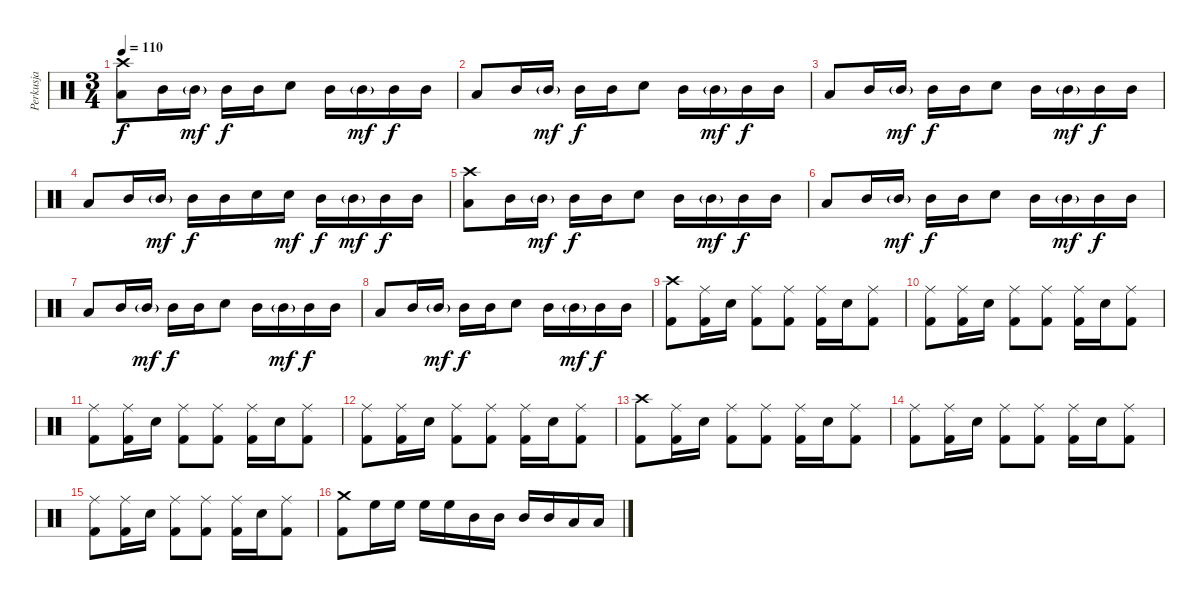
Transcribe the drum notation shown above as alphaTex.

\track ("Perkusja" "Perkusja") {instrument percussion}
\staff {score}
\articulation defaults
\ts (3 4)
\tempo 110
\clef neutral
\ks c
("Crash high (hit)" "Low Floor Tom (hit)").8{dy f} "Mid Tom (hit)".16 "Mid Tom (hit)"{g}.16{dy mf} "Mid Tom (hit)".16{dy f} "Mid Tom (hit)".16 "Snare (hit) 2".8 "Mid Tom (hit)".16 "Mid Tom (hit)"{g}.16{dy mf} "Mid Tom (hit)".16{dy f} "Mid Tom (hit)".16 |
"Low Floor Tom (hit)".8 "Mid Tom (hit)".16 "Mid Tom (hit)"{g}.16{dy mf} "Mid Tom (hit)".16{dy f} "Mid Tom (hit)".16 "Snare (hit) 2".8 "Mid Tom (hit)".16 "Mid Tom (hit)"{g}.16{dy mf} "Mid Tom (hit)".16{dy f} "Mid Tom (hit)".16 |
"Low Floor Tom (hit)".8 "Mid Tom (hit)".16 "Mid Tom (hit)"{g}.16{dy mf} "Mid Tom (hit)".16{dy f} "Mid Tom (hit)".16 "Snare (hit) 2".8 "Mid Tom (hit)".16 "Mid Tom (hit)"{g}.16{dy mf} "Mid Tom (hit)".16{dy f} "Mid Tom (hit)".16 |
"Low Floor Tom (hit)".8 "Mid Tom (hit)".16 "Mid Tom (hit)"{g}.16{dy mf} "Mid Tom (hit)".16{dy f} "Mid Tom (hit)".16 "Snare (hit) 2".16 "Snare (hit) 2".16{dy mf} "Mid Tom (hit)".16{dy f} "Mid Tom (hit)"{g}.16{dy mf} "Mid Tom (hit)".16{dy f} "Mid Tom (hit)".16 |
("Crash high (hit)" "Low Floor Tom (hit)").8 "Mid Tom (hit)".16 "Mid Tom (hit)"{g}.16{dy mf} "Mid Tom (hit)".16{dy f} "Mid Tom (hit)".16 "Snare (hit) 2".8 "Mid Tom (hit)".16 "Mid Tom (hit)"{g}.16{dy mf} "Mid Tom (hit)".16{dy f} "Mid Tom (hit)".16 |
"Low Floor Tom (hit)".8 "Mid Tom (hit)".16 "Mid Tom (hit)"{g}.16{dy mf} "Mid Tom (hit)".16{dy f} "Mid Tom (hit)".16 "Snare (hit) 2".8 "Mid Tom (hit)".16 "Mid Tom (hit)"{g}.16{dy mf} "Mid Tom (hit)".16{dy f} "Mid Tom (hit)".16 |
"Low Floor Tom (hit)".8 "Mid Tom (hit)".16 "Mid Tom (hit)"{g}.16{dy mf} "Mid Tom (hit)".16{dy f} "Mid Tom (hit)".16 "Snare (hit) 2".8 "Mid Tom (hit)".16 "Mid Tom (hit)"{g}.16{dy mf} "Mid Tom (hit)".16{dy f} "Mid Tom (hit)".16 |
"Low Floor Tom (hit)".8 "Mid Tom (hit)".16 "Mid Tom (hit)"{g}.16{dy mf} "Mid Tom (hit)".16{dy f} "Mid Tom (hit)".16 "Snare (hit) 2".8 "Mid Tom (hit)".16 "Mid Tom (hit)"{g}.16{dy mf} "Mid Tom (hit)".16{dy f} "Mid Tom (hit)".16 |
("Crash high (hit)" "Kick (hit) 2").8 ("Ride (middle)" "Kick (hit) 2").16 "Snare (hit) 2".16 ("Ride (middle)" "Kick (hit) 2").8 ("Ride (middle)" "Kick (hit) 2").8 ("Ride (middle)" "Kick (hit) 2").16 "Snare (hit) 2".16 ("Ride (middle)" "Kick (hit) 2").8 |
("Ride (middle)" "Kick (hit) 2").8 ("Ride (middle)" "Kick (hit) 2").16 "Snare (hit) 2".16 ("Ride (middle)" "Kick (hit) 2").8 ("Ride (middle)" "Kick (hit) 2").8 ("Ride (middle)" "Kick (hit) 2").16 "Snare (hit) 2".16 ("Ride (middle)" "Kick (hit) 2").8 |
("Ride (middle)" "Kick (hit) 2").8 ("Ride (middle)" "Kick (hit) 2").16 "Snare (hit) 2".16 ("Ride (middle)" "Kick (hit) 2").8 ("Ride (middle)" "Kick (hit) 2").8 ("Ride (middle)" "Kick (hit) 2").16 "Snare (hit) 2".16 ("Ride (middle)" "Kick (hit) 2").8 |
("Ride (middle)" "Kick (hit) 2").8 ("Ride (middle)" "Kick (hit) 2").16 "Snare (hit) 2".16 ("Ride (middle)" "Kick (hit) 2").8 ("Ride (middle)" "Kick (hit) 2").8 ("Ride (middle)" "Kick (hit) 2").16 "Snare (hit) 2".16 ("Ride (middle)" "Kick (hit) 2").8 |
("Crash high (hit)" "Kick (hit) 2").8 ("Ride (middle)" "Kick (hit) 2").16 "Snare (hit) 2".16 ("Ride (middle)" "Kick (hit) 2").8 ("Ride (middle)" "Kick (hit) 2").8 ("Ride (middle)" "Kick (hit) 2").16 "Snare (hit) 2".16 ("Ride (middle)" "Kick (hit) 2").8 |
("Ride (middle)" "Kick (hit) 2").8 ("Ride (middle)" "Kick (hit) 2").16 "Snare (hit) 2".16 ("Ride (middle)" "Kick (hit) 2").8 ("Ride (middle)" "Kick (hit) 2").8 ("Ride (middle)" "Kick (hit) 2").16 "Snare (hit) 2".16 ("Ride (middle)" "Kick (hit) 2").8 |
("Ride (middle)" "Kick (hit) 2").8 ("Ride (middle)" "Kick (hit) 2").16 "Snare (hit) 2".16 ("Ride (middle)" "Kick (hit) 2").8 ("Ride (middle)" "Kick (hit) 2").8 ("Ride (middle)" "Kick (hit) 2").16 "Snare (hit) 2".16 ("Ride (middle)" "Kick (hit) 2").8 |
("Crash medium (hit)" "Kick (hit) 2").8 "High Floor Tom (hit)".16 "High Floor Tom (hit)".16 "High Floor Tom (hit)".16 "High Floor Tom (hit)".16 "Mid Tom (hit)".16 "Mid Tom (hit)".16 "Mid Tom (hit)".16 "Mid Tom (hit)".16 "Low Floor Tom (hit)".16 "Low Floor Tom (hit)".16
